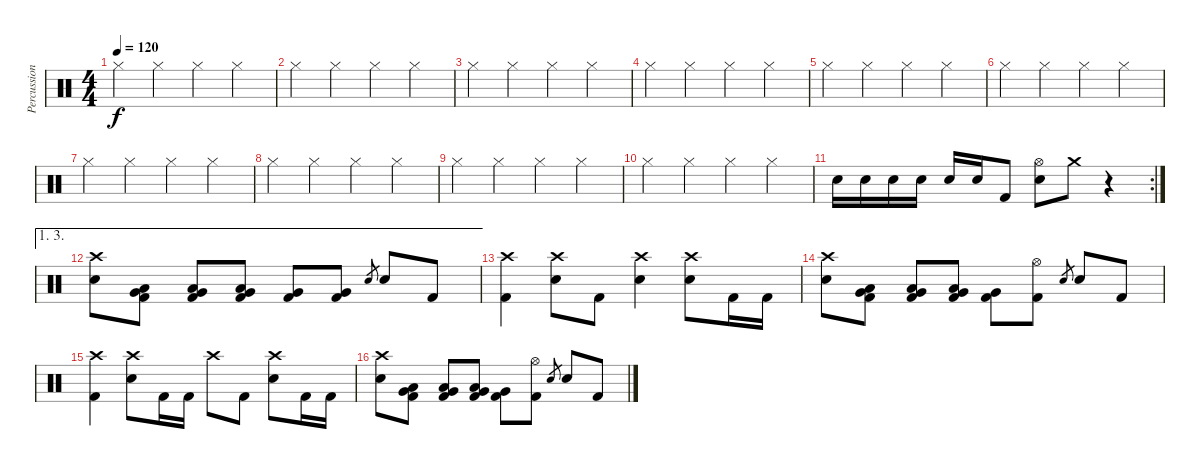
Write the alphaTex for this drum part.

\track ("Percussions" "Percussion") {instrument percussion}
\staff {score}
\articulation defaults
\ts (4 4)
\tempo 120
\clef neutral
\ks c "Hi-Hat (closed)".4{dy f} "Hi-Hat (closed)".4 "Hi-Hat (closed)".4 "Hi-Hat (closed)".4
|
"Hi-Hat (closed)".4 "Hi-Hat (closed)".4 "Hi-Hat (closed)".4 "Hi-Hat (closed)".4 |
"Hi-Hat (closed)".4 "Hi-Hat (closed)".4 "Hi-Hat (closed)".4 "Hi-Hat (closed)".4 |
"Hi-Hat (closed)".4 "Hi-Hat (closed)".4 "Hi-Hat (closed)".4 "Hi-Hat (closed)".4 |
"Hi-Hat (closed)".4 "Hi-Hat (closed)".4 "Hi-Hat (closed)".4 "Hi-Hat (closed)".4 |
"Hi-Hat (closed)".4 "Hi-Hat (closed)".4 "Hi-Hat (closed)".4 "Hi-Hat (closed)".4 |
"Hi-Hat (closed)".4 "Hi-Hat (closed)".4 "Hi-Hat (closed)".4 "Hi-Hat (closed)".4 |
"Hi-Hat (closed)".4 "Hi-Hat (closed)".4 "Hi-Hat (closed)".4 "Hi-Hat (closed)".4 |
"Hi-Hat (closed)".4 "Hi-Hat (closed)".4 "Hi-Hat (closed)".4 "Hi-Hat (closed)".4 |
"Hi-Hat (closed)".4 "Hi-Hat (closed)".4 "Hi-Hat (closed)".4 "Hi-Hat (closed)".4 |
\rc 2 "Electric Snare (hit)".16 "Electric Snare (hit)".16 "Electric Snare (hit)".16 "Electric Snare (hit)".16 "Electric Snare (hit)".16 "Electric Snare (hit)".16 "Kick (hit) 2".8
("Hi-Hat (open)" "Electric Snare (hit)").8 "Crash medium (hit)".8 r.4 |
\ae (1 3)
("Crash high (hit)" "Electric Snare (hit)").8 ("Low Tom (hit)" "Very Low Tom (hit)" "Kick (hit) 2").8 ("Low Tom (hit)" "Very Low Tom (hit)" "Kick (hit) 2").8 ("Low Tom (hit)" "Very Low Tom (hit)" "Kick (hit) 2").8 ("Very Low Tom (hit)" "Kick (hit) 2").8 ("Very Low Tom (hit)" "Kick (hit) 2").8 "Electric Snare (hit)".8{gr} "Electric Snare (hit)".8 "Kick (hit) 2".8 |
("Crash high (hit)" "Kick (hit) 2").4 ("Crash high (hit)" "Electric Snare (hit)").8 "Kick (hit) 2".8 ("Crash high (hit)" "Electric Snare (hit)").4 ("Crash high (hit)" "Electric Snare (hit)").8 "Kick (hit) 2".16 "Kick (hit) 2".16 |
("Crash high (hit)" "Electric Snare (hit)").8 ("Low Tom (hit)" "Very Low Tom (hit)" "Kick (hit) 2").8 ("Low Tom (hit)" "Very Low Tom (hit)" "Kick (hit) 2").8 ("Low Tom (hit)" "Very Low Tom (hit)" "Kick (hit) 2").8 ("Very Low Tom (hit)" "Kick (hit) 2").8 ("Hi-Hat (open)" "Kick (hit) 2").8 "Electric Snare (hit)".8{gr} "Electric Snare (hit)".8 "Kick (hit) 2".8 |
("Crash high (hit)" "Kick (hit) 2").4 ("Crash high (hit)" "Electric Snare (hit)").8 "Kick (hit) 2".16 "Kick (hit) 2".16 "Crash high (hit)".8 "Kick (hit) 2".8 ("Crash high (hit)" "Electric Snare (hit)").8 "Kick (hit) 2".16 "Kick (hit) 2".16 |
("Crash high (hit)" "Electric Snare (hit)").8 ("Low Tom (hit)" "Very Low Tom (hit)" "Kick (hit) 2").8 ("Low Tom (hit)" "Very Low Tom (hit)" "Kick (hit) 2").8 ("Low Tom (hit)" "Very Low Tom (hit)" "Kick (hit) 2").8 ("Very Low Tom (hit)" "Kick (hit) 2").8 ("Hi-Hat (open)" "Kick (hit) 2").8 "Electric Snare (hit)".8{gr} "Electric Snare (hit)".8 "Kick (hit) 2".8
